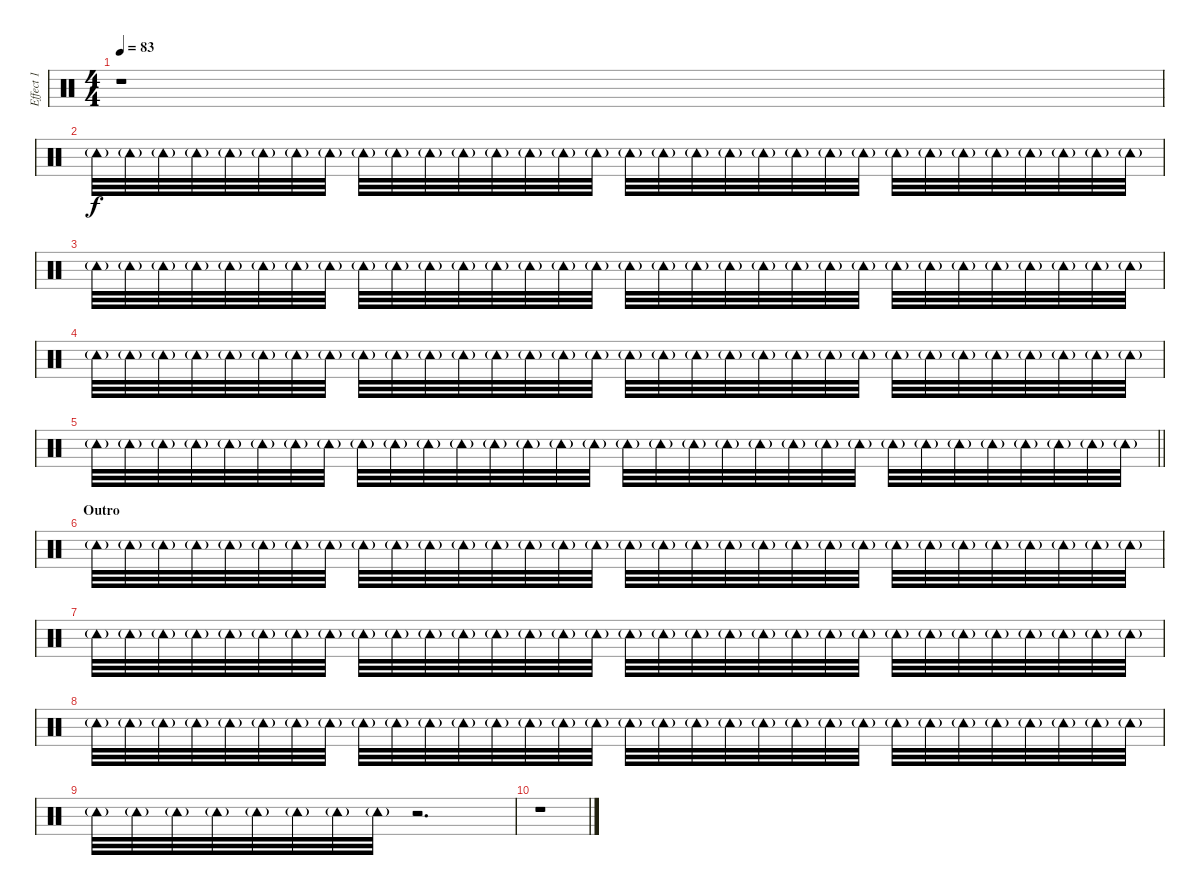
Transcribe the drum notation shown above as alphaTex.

\track ("Effect 1" "Effect 1") {instrument percussion}
\staff {score}
\articulation defaults
\ts (4 4)
\tempo 83
\clef neutral
\ks c
r.1{dy f} |
"Tambourine (hit)"{g}.32 "Tambourine (hit)"{g}.32 "Tambourine (hit)"{g}.32 "Tambourine (hit)"{g}.32 "Tambourine (hit)"{g}.32 "Tambourine (hit)"{g}.32 "Tambourine (hit)"{g}.32 "Tambourine (hit)"{g}.32 "Tambourine (hit)"{g}.32 "Tambourine (hit)"{g}.32 "Tambourine (hit)"{g}.32 "Tambourine (hit)"{g}.32 "Tambourine (hit)"{g}.32 "Tambourine (hit)"{g}.32 "Tambourine (hit)"{g}.32 "Tambourine (hit)"{g}.32 "Tambourine (hit)"{g}.32 "Tambourine (hit)"{g}.32 "Tambourine (hit)"{g}.32 "Tambourine (hit)"{g}.32 "Tambourine (hit)"{g}.32 "Tambourine (hit)"{g}.32 "Tambourine (hit)"{g}.32 "Tambourine (hit)"{g}.32 "Tambourine (hit)"{g}.32 "Tambourine (hit)"{g}.32 "Tambourine (hit)"{g}.32 "Tambourine (hit)"{g}.32 "Tambourine (hit)"{g}.32 "Tambourine (hit)"{g}.32 "Tambourine (hit)"{g}.32 "Tambourine (hit)"{g}.32 |
"Tambourine (hit)"{g}.32 "Tambourine (hit)"{g}.32 "Tambourine (hit)"{g}.32 "Tambourine (hit)"{g}.32 "Tambourine (hit)"{g}.32 "Tambourine (hit)"{g}.32 "Tambourine (hit)"{g}.32 "Tambourine (hit)"{g}.32 "Tambourine (hit)"{g}.32 "Tambourine (hit)"{g}.32 "Tambourine (hit)"{g}.32 "Tambourine (hit)"{g}.32 "Tambourine (hit)"{g}.32 "Tambourine (hit)"{g}.32 "Tambourine (hit)"{g}.32 "Tambourine (hit)"{g}.32 "Tambourine (hit)"{g}.32 "Tambourine (hit)"{g}.32 "Tambourine (hit)"{g}.32 "Tambourine (hit)"{g}.32 "Tambourine (hit)"{g}.32 "Tambourine (hit)"{g}.32 "Tambourine (hit)"{g}.32 "Tambourine (hit)"{g}.32 "Tambourine (hit)"{g}.32 "Tambourine (hit)"{g}.32 "Tambourine (hit)"{g}.32 "Tambourine (hit)"{g}.32 "Tambourine (hit)"{g}.32 "Tambourine (hit)"{g}.32 "Tambourine (hit)"{g}.32 "Tambourine (hit)"{g}.32 |
"Tambourine (hit)"{g}.32 "Tambourine (hit)"{g}.32 "Tambourine (hit)"{g}.32 "Tambourine (hit)"{g}.32 "Tambourine (hit)"{g}.32 "Tambourine (hit)"{g}.32 "Tambourine (hit)"{g}.32 "Tambourine (hit)"{g}.32 "Tambourine (hit)"{g}.32 "Tambourine (hit)"{g}.32 "Tambourine (hit)"{g}.32 "Tambourine (hit)"{g}.32 "Tambourine (hit)"{g}.32 "Tambourine (hit)"{g}.32 "Tambourine (hit)"{g}.32 "Tambourine (hit)"{g}.32 "Tambourine (hit)"{g}.32 "Tambourine (hit)"{g}.32 "Tambourine (hit)"{g}.32 "Tambourine (hit)"{g}.32 "Tambourine (hit)"{g}.32 "Tambourine (hit)"{g}.32 "Tambourine (hit)"{g}.32 "Tambourine (hit)"{g}.32 "Tambourine (hit)"{g}.32 "Tambourine (hit)"{g}.32 "Tambourine (hit)"{g}.32 "Tambourine (hit)"{g}.32 "Tambourine (hit)"{g}.32 "Tambourine (hit)"{g}.32 "Tambourine (hit)"{g}.32 "Tambourine (hit)"{g}.32 |
\barLineRight lightlight "Tambourine (hit)"{g}.32 "Tambourine (hit)"{g}.32 "Tambourine (hit)"{g}.32 "Tambourine (hit)"{g}.32 "Tambourine (hit)"{g}.32 "Tambourine (hit)"{g}.32 "Tambourine (hit)"{g}.32 "Tambourine (hit)"{g}.32 "Tambourine (hit)"{g}.32 "Tambourine (hit)"{g}.32 "Tambourine (hit)"{g}.32 "Tambourine (hit)"{g}.32 "Tambourine (hit)"{g}.32 "Tambourine (hit)"{g}.32 "Tambourine (hit)"{g}.32 "Tambourine (hit)"{g}.32 "Tambourine (hit)"{g}.32 "Tambourine (hit)"{g}.32 "Tambourine (hit)"{g}.32 "Tambourine (hit)"{g}.32 "Tambourine (hit)"{g}.32 "Tambourine (hit)"{g}.32 "Tambourine (hit)"{g}.32 "Tambourine (hit)"{g}.32 "Tambourine (hit)"{g}.32 "Tambourine (hit)"{g}.32 "Tambourine (hit)"{g}.32 "Tambourine (hit)"{g}.32 "Tambourine (hit)"{g}.32 "Tambourine (hit)"{g}.32 "Tambourine (hit)"{g}.32 "Tambourine (hit)"{g}.32
|
\section ("" "Outro")
"Tambourine (hit)"{g}.32 "Tambourine (hit)"{g}.32 "Tambourine (hit)"{g}.32 "Tambourine (hit)"{g}.32 "Tambourine (hit)"{g}.32 "Tambourine (hit)"{g}.32 "Tambourine (hit)"{g}.32 "Tambourine (hit)"{g}.32 "Tambourine (hit)"{g}.32 "Tambourine (hit)"{g}.32 "Tambourine (hit)"{g}.32 "Tambourine (hit)"{g}.32 "Tambourine (hit)"{g}.32 "Tambourine (hit)"{g}.32 "Tambourine (hit)"{g}.32 "Tambourine (hit)"{g}.32 "Tambourine (hit)"{g}.32 "Tambourine (hit)"{g}.32 "Tambourine (hit)"{g}.32 "Tambourine (hit)"{g}.32 "Tambourine (hit)"{g}.32 "Tambourine (hit)"{g}.32 "Tambourine (hit)"{g}.32 "Tambourine (hit)"{g}.32 "Tambourine (hit)"{g}.32 "Tambourine (hit)"{g}.32 "Tambourine (hit)"{g}.32 "Tambourine (hit)"{g}.32 "Tambourine (hit)"{g}.32 "Tambourine (hit)"{g}.32 "Tambourine (hit)"{g}.32 "Tambourine (hit)"{g}.32 |
"Tambourine (hit)"{g}.32 "Tambourine (hit)"{g}.32 "Tambourine (hit)"{g}.32 "Tambourine (hit)"{g}.32 "Tambourine (hit)"{g}.32 "Tambourine (hit)"{g}.32 "Tambourine (hit)"{g}.32 "Tambourine (hit)"{g}.32 "Tambourine (hit)"{g}.32 "Tambourine (hit)"{g}.32 "Tambourine (hit)"{g}.32 "Tambourine (hit)"{g}.32 "Tambourine (hit)"{g}.32 "Tambourine (hit)"{g}.32 "Tambourine (hit)"{g}.32 "Tambourine (hit)"{g}.32 "Tambourine (hit)"{g}.32 "Tambourine (hit)"{g}.32 "Tambourine (hit)"{g}.32 "Tambourine (hit)"{g}.32 "Tambourine (hit)"{g}.32 "Tambourine (hit)"{g}.32 "Tambourine (hit)"{g}.32 "Tambourine (hit)"{g}.32 "Tambourine (hit)"{g}.32 "Tambourine (hit)"{g}.32 "Tambourine (hit)"{g}.32 "Tambourine (hit)"{g}.32 "Tambourine (hit)"{g}.32 "Tambourine (hit)"{g}.32 "Tambourine (hit)"{g}.32 "Tambourine (hit)"{g}.32 |
"Tambourine (hit)"{g}.32 "Tambourine (hit)"{g}.32 "Tambourine (hit)"{g}.32 "Tambourine (hit)"{g}.32 "Tambourine (hit)"{g}.32 "Tambourine (hit)"{g}.32 "Tambourine (hit)"{g}.32 "Tambourine (hit)"{g}.32 "Tambourine (hit)"{g}.32 "Tambourine (hit)"{g}.32 "Tambourine (hit)"{g}.32 "Tambourine (hit)"{g}.32 "Tambourine (hit)"{g}.32 "Tambourine (hit)"{g}.32 "Tambourine (hit)"{g}.32 "Tambourine (hit)"{g}.32 "Tambourine (hit)"{g}.32 "Tambourine (hit)"{g}.32 "Tambourine (hit)"{g}.32 "Tambourine (hit)"{g}.32 "Tambourine (hit)"{g}.32 "Tambourine (hit)"{g}.32 "Tambourine (hit)"{g}.32 "Tambourine (hit)"{g}.32 "Tambourine (hit)"{g}.32 "Tambourine (hit)"{g}.32 "Tambourine (hit)"{g}.32 "Tambourine (hit)"{g}.32 "Tambourine (hit)"{g}.32 "Tambourine (hit)"{g}.32 "Tambourine (hit)"{g}.32 "Tambourine (hit)"{g}.32 |
"Tambourine (hit)"{g}.32 "Tambourine (hit)"{g}.32 "Tambourine (hit)"{g}.32 "Tambourine (hit)"{g}.32 "Tambourine (hit)"{g}.32 "Tambourine (hit)"{g}.32 "Tambourine (hit)"{g}.32 "Tambourine (hit)"{g}.32 r.2{d} |
r.1
